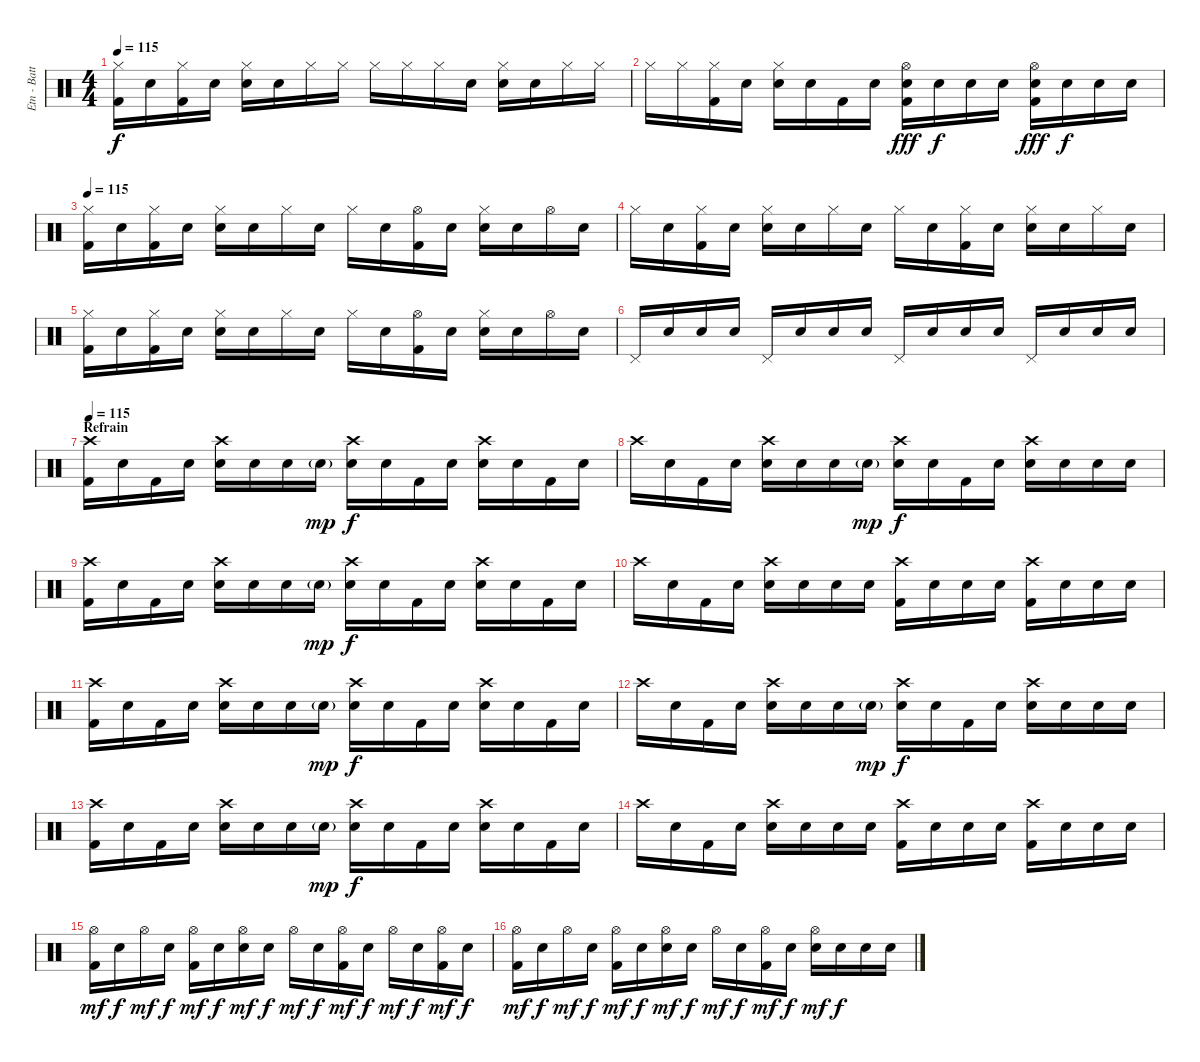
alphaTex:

\track ("Etn - Batterie" "Etn - Batt") {instrument percussion}
\staff {score}
\articulation defaults
\ts (4 4)
\tempo 115
\clef neutral
\ks c
("Hi-Hat (closed)" "Kick (hit) 2").16{dy f} "Snare (hit)".16 ("Hi-Hat (closed)" "Kick (hit) 2").16 "Snare (hit)".16 ("Hi-Hat (closed)" "Electric Snare (hit)").16 "Snare (hit)".16 "Hi-Hat (closed)".16 "Hi-Hat (closed)".16 "Hi-Hat (closed)".16 "Hi-Hat (closed)".16 "Hi-Hat (closed)".16 "Snare (hit)".16 ("Hi-Hat (closed)" "Electric Snare (hit)").16 "Snare (hit)".16 "Hi-Hat (closed)".16 "Hi-Hat (closed)".16 |
"Hi-Hat (closed)".16 "Hi-Hat (closed)".16 ("Hi-Hat (closed)" "Kick (hit) 2").16 "Snare (hit)".16 ("Hi-Hat (closed)" "Electric Snare (hit)").16 "Snare (hit)".16 "Kick (hit) 2".16 "Snare (hit)".16 ("Hi-Hat (open)" "Electric Snare (hit)" "Kick (hit) 2").16{dy fff} "Snare (hit)".16{dy f} "Snare (hit)".16 "Snare (hit)".16 ("Hi-Hat (open)" "Electric Snare (hit)" "Kick (hit) 2").16{dy fff} "Snare (hit)".16{dy f} "Snare (hit)".16 "Snare (hit)".16 |
\section ("" "")
\tempo 115
("Hi-Hat (closed)" "Kick (hit) 2").16{volume 16 balance 8} "Snare (hit)".16 ("Hi-Hat (closed)" "Kick (hit) 2").16 "Snare (hit)".16 ("Hi-Hat (closed)" "Electric Snare (hit)").16 "Snare (hit)".16 "Hi-Hat (closed)".16 "Snare (hit)".16 "Hi-Hat (closed)".16 "Snare (hit)".16 ("Hi-Hat (open)" "Kick (hit) 2").16 "Snare (hit)".16 ("Hi-Hat (closed)" "Electric Snare (hit)").16 "Snare (hit)".16 "Hi-Hat (open)".16 "Snare (hit)".16 |
"Hi-Hat (closed)".16 "Snare (hit)".16 ("Hi-Hat (closed)" "Kick (hit) 2").16 "Snare (hit)".16 ("Hi-Hat (closed)" "Electric Snare (hit)").16 "Snare (hit)".16 "Hi-Hat (closed)".16 "Snare (hit)".16 "Hi-Hat (closed)".16 "Snare (hit)".16 ("Hi-Hat (closed)" "Kick (hit) 2").16 "Snare (hit)".16 ("Hi-Hat (closed)" "Electric Snare (hit)").16 "Snare (hit)".16 "Hi-Hat (closed)".16 "Snare (hit)".16 |
("Hi-Hat (closed)" "Kick (hit) 2").16 "Snare (hit)".16 ("Hi-Hat (closed)" "Kick (hit) 2").16 "Snare (hit)".16 ("Hi-Hat (closed)" "Electric Snare (hit)").16 "Snare (hit)".16 "Hi-Hat (closed)".16 "Snare (hit)".16 "Hi-Hat (closed)".16 "Snare (hit)".16 ("Hi-Hat (open)" "Kick (hit) 2").16 "Snare (hit)".16 ("Hi-Hat (closed)" "Electric Snare (hit)").16 "Snare (hit)".16 "Hi-Hat (open)".16 "Snare (hit)".16 |
"Pedal Hi-Hat (hit)".16 "Snare (hit)".16 "Snare (hit)".16 "Snare (hit)".16 "Pedal Hi-Hat (hit)".16 "Snare (hit)".16 "Snare (hit)".16 "Snare (hit)".16 "Pedal Hi-Hat (hit)".16 "Snare (hit)".16 "Snare (hit)".16 "Snare (hit)".16 "Pedal Hi-Hat (hit)".16 "Snare (hit)".16 "Snare (hit)".16 "Snare (hit)".16 |
\section ("" "Refrain")
\tempo 115
("Crash high (hit)" "Kick (hit) 2").16{volume 16 balance 8} "Snare (hit)".16 "Kick (hit) 2".16 "Snare (hit)".16 ("Crash high (hit)" "Electric Snare (hit)").16 "Snare (hit)".16 "Snare (hit)".16 "Electric Snare (hit)"{g}.16{dy mp} ("Crash high (hit)" "Electric Snare (hit)").16{dy f} "Snare (hit)".16 "Kick (hit) 2".16 "Snare (hit)".16 ("Crash high (hit)" "Electric Snare (hit)").16 "Snare (hit)".16 "Kick (hit) 2".16 "Snare (hit)".16 |
"Crash high (hit)".16 "Snare (hit)".16 "Kick (hit) 2".16 "Snare (hit)".16 ("Crash high (hit)" "Electric Snare (hit)").16 "Snare (hit)".16 "Snare (hit)".16 "Electric Snare (hit)"{g}.16{dy mp} ("Crash high (hit)" "Electric Snare (hit)").16{dy f} "Snare (hit)".16 "Kick (hit) 2".16 "Snare (hit)".16 ("Crash high (hit)" "Electric Snare (hit)").16 "Snare (hit)".16 "Electric Snare (hit)".16 "Electric Snare (hit)".16 |
("Crash high (hit)" "Kick (hit) 2").16 "Snare (hit)".16 "Kick (hit) 2".16 "Snare (hit)".16 ("Crash high (hit)" "Electric Snare (hit)").16 "Snare (hit)".16 "Snare (hit)".16 "Electric Snare (hit)"{g}.16{dy mp} ("Crash high (hit)" "Electric Snare (hit)").16{dy f} "Snare (hit)".16 "Kick (hit) 2".16 "Snare (hit)".16 ("Crash high (hit)" "Electric Snare (hit)").16 "Snare (hit)".16 "Kick (hit) 2".16 "Snare (hit)".16 |
"Crash high (hit)".16 "Snare (hit)".16 "Kick (hit) 2".16 "Snare (hit)".16 ("Crash high (hit)" "Electric Snare (hit)").16 "Snare (hit)".16 "Snare (hit)".16 "Snare (hit)".16 ("Crash high (hit)" "Kick (hit) 2").16 "Snare (hit)".16 "Electric Snare (hit)".16 "Snare (hit)".16 ("Crash high (hit)" "Kick (hit) 2").16 "Snare (hit)".16 "Electric Snare (hit)".16 "Snare (hit)".16 |
("Crash high (hit)" "Kick (hit) 2").16 "Snare (hit)".16 "Kick (hit) 2".16 "Snare (hit)".16 ("Crash high (hit)" "Electric Snare (hit)").16 "Snare (hit)".16 "Snare (hit)".16 "Electric Snare (hit)"{g}.16{dy mp} ("Crash high (hit)" "Electric Snare (hit)").16{dy f} "Snare (hit)".16 "Kick (hit) 2".16 "Snare (hit)".16 ("Crash high (hit)" "Electric Snare (hit)").16 "Snare (hit)".16 "Kick (hit) 2".16 "Snare (hit)".16 |
"Crash high (hit)".16 "Snare (hit)".16 "Kick (hit) 2".16 "Snare (hit)".16 ("Crash high (hit)" "Electric Snare (hit)").16 "Snare (hit)".16 "Snare (hit)".16 "Electric Snare (hit)"{g}.16{dy mp} ("Crash high (hit)" "Electric Snare (hit)").16{dy f} "Snare (hit)".16 "Kick (hit) 2".16 "Snare (hit)".16 ("Crash high (hit)" "Electric Snare (hit)").16 "Snare (hit)".16 "Electric Snare (hit)".16 "Electric Snare (hit)".16 |
("Crash high (hit)" "Kick (hit) 2").16 "Snare (hit)".16 "Kick (hit) 2".16 "Snare (hit)".16 ("Crash high (hit)" "Electric Snare (hit)").16 "Snare (hit)".16 "Snare (hit)".16 "Electric Snare (hit)"{g}.16{dy mp} ("Crash high (hit)" "Electric Snare (hit)").16{dy f} "Snare (hit)".16 "Kick (hit) 2".16 "Snare (hit)".16 ("Crash high (hit)" "Electric Snare (hit)").16 "Snare (hit)".16 "Kick (hit) 2".16 "Snare (hit)".16 |
"Crash high (hit)".16 "Snare (hit)".16 "Kick (hit) 2".16 "Snare (hit)".16 ("Crash high (hit)" "Electric Snare (hit)").16 "Snare (hit)".16 "Snare (hit)".16 "Snare (hit)".16 ("Crash high (hit)" "Kick (hit) 2").16 "Snare (hit)".16 "Electric Snare (hit)".16 "Snare (hit)".16 ("Crash high (hit)" "Kick (hit) 2").16 "Snare (hit)".16 "Electric Snare (hit)".16 "Snare (hit)".16 |
\section ("" "")
("Hi-Hat (open)" "Kick (hit) 2").16{dy mf} "Snare (hit)".16{dy f} "Hi-Hat (open)".16{dy mf} "Snare (hit)".16{dy f} ("Hi-Hat (open)" "Kick (hit) 2").16{dy mf} "Snare (hit)".16{dy f} ("Hi-Hat (open)" "Electric Snare (hit)").16{dy mf} "Snare (hit)".16{dy f} "Hi-Hat (open)".16{dy mf} "Snare (hit)".16{dy f} ("Hi-Hat (open)" "Kick (hit) 2").16{dy mf} "Snare (hit)".16{dy f} "Hi-Hat (open)".16{dy mf} "Snare (hit)".16{dy f} ("Hi-Hat (open)" "Kick (hit) 2").16{dy mf} "Snare (hit)".16{dy f} |
("Hi-Hat (open)" "Kick (hit) 2").16{dy mf} "Snare (hit)".16{dy f} "Hi-Hat (open)".16{dy mf} "Snare (hit)".16{dy f} ("Hi-Hat (open)" "Kick (hit) 2").16{dy mf} "Snare (hit)".16{dy f} ("Hi-Hat (open)" "Electric Snare (hit)").16{dy mf} "Snare (hit)".16{dy f} "Hi-Hat (open)".16{dy mf} "Snare (hit)".16{dy f} ("Hi-Hat (open)" "Kick (hit) 2").16{dy mf} "Snare (hit)".16{dy f} ("Hi-Hat (open)" "Electric Snare (hit)").16{dy mf} "Snare (hit)".16{dy f} "Snare (hit)".16 "Snare (hit)".16
